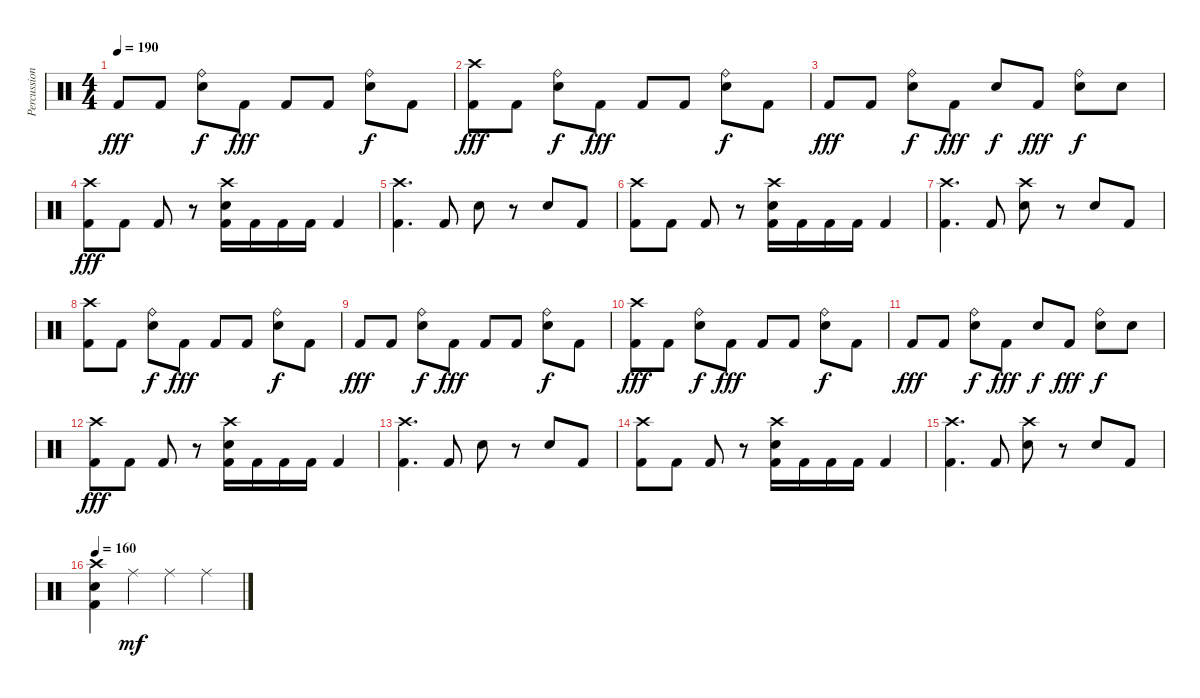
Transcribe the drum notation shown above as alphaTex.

\track ("Percussion" "Percussion") {instrument percussion}
\staff {score}
\articulation defaults
\ts (4 4)
\tempo 190
\clef neutral
\ks c "Kick (hit) 2".8{dy fff} "Kick (hit) 2".8
("Ride (bell)" "Electric Snare (hit)").8{dy f} "Kick (hit) 2".8{dy fff} "Kick (hit) 2".8 "Kick (hit) 2".8 ("Ride (bell)" "Electric Snare (hit)").8{dy f} "Kick (hit) 2".8 |
("Crash high (hit)" "Kick (hit) 2").8{dy fff} "Kick (hit) 2".8 ("Ride (bell)" "Electric Snare (hit)").8{dy f} "Kick (hit) 2".8{dy fff} "Kick (hit) 2".8 "Kick (hit) 2".8 ("Ride (bell)" "Electric Snare (hit)").8{dy f} "Kick (hit) 2".8 |
"Kick (hit) 2".8{dy fff} "Kick (hit) 2".8 ("Ride (bell)" "Electric Snare (hit)").8{dy f} "Kick (hit) 2".8{dy fff} "Electric Snare (hit)".8{dy f} "Kick (hit) 2".8{dy fff} ("Ride (bell)" "Electric Snare (hit)").8{dy f} "Electric Snare (hit)".8 |
("Crash high (hit)" "Kick (hit) 2").8{dy fff} "Kick (hit) 2".8 "Kick (hit) 2".8 r.8 ("Crash high (hit)" "Electric Snare (hit)" "Kick (hit) 2").16 "Kick (hit) 2".16 "Kick (hit) 2".16 "Kick (hit) 2".16 "Kick (hit) 2".4 |
("Crash high (hit)" "Kick (hit) 2").4{d} "Kick (hit) 2".8 "Electric Snare (hit)".8 r.8 "Electric Snare (hit)".8 "Kick (hit) 2".8 |
("Crash high (hit)" "Kick (hit) 2").8 "Kick (hit) 2".8 "Kick (hit) 2".8 r.8 ("Crash high (hit)" "Electric Snare (hit)" "Kick (hit) 2").16 "Kick (hit) 2".16 "Kick (hit) 2".16 "Kick (hit) 2".16 "Kick (hit) 2".4 |
("Crash high (hit)" "Kick (hit) 2").4{d} "Kick (hit) 2".8 ("Crash high (hit)" "Electric Snare (hit)").8 r.8 "Electric Snare (hit)".8 "Kick (hit) 2".8 |
("Crash high (hit)" "Kick (hit) 2").8 "Kick (hit) 2".8 ("Ride (bell)" "Electric Snare (hit)").8{dy f} "Kick (hit) 2".8{dy fff} "Kick (hit) 2".8 "Kick (hit) 2".8 ("Ride (bell)" "Electric Snare (hit)").8{dy f} "Kick (hit) 2".8 |
"Kick (hit) 2".8{dy fff} "Kick (hit) 2".8 ("Ride (bell)" "Electric Snare (hit)").8{dy f} "Kick (hit) 2".8{dy fff} "Kick (hit) 2".8 "Kick (hit) 2".8 ("Ride (bell)" "Electric Snare (hit)").8{dy f} "Kick (hit) 2".8 |
("Crash high (hit)" "Kick (hit) 2").8{dy fff} "Kick (hit) 2".8 ("Ride (bell)" "Electric Snare (hit)").8{dy f} "Kick (hit) 2".8{dy fff} "Kick (hit) 2".8 "Kick (hit) 2".8 ("Ride (bell)" "Electric Snare (hit)").8{dy f} "Kick (hit) 2".8 |
"Kick (hit) 2".8{dy fff} "Kick (hit) 2".8 ("Ride (bell)" "Electric Snare (hit)").8{dy f} "Kick (hit) 2".8{dy fff} "Electric Snare (hit)".8{dy f} "Kick (hit) 2".8{dy fff} ("Ride (bell)" "Electric Snare (hit)").8{dy f} "Electric Snare (hit)".8 |
("Crash high (hit)" "Kick (hit) 2").8{dy fff} "Kick (hit) 2".8 "Kick (hit) 2".8 r.8 ("Crash high (hit)" "Electric Snare (hit)" "Kick (hit) 2").16 "Kick (hit) 2".16 "Kick (hit) 2".16 "Kick (hit) 2".16 "Kick (hit) 2".4 |
("Crash high (hit)" "Kick (hit) 2").4{d} "Kick (hit) 2".8 "Electric Snare (hit)".8 r.8 "Electric Snare (hit)".8 "Kick (hit) 2".8 |
("Crash high (hit)" "Kick (hit) 2").8 "Kick (hit) 2".8 "Kick (hit) 2".8 r.8 ("Crash high (hit)" "Electric Snare (hit)" "Kick (hit) 2").16 "Kick (hit) 2".16 "Kick (hit) 2".16 "Kick (hit) 2".16 "Kick (hit) 2".4 |
("Crash high (hit)" "Kick (hit) 2").4{d} "Kick (hit) 2".8 ("Crash high (hit)" "Electric Snare (hit)").8 r.8 "Electric Snare (hit)".8 "Kick (hit) 2".8 |
\tempo 160
("Crash high (hit)" "Electric Snare (hit)" "Kick (hit) 2").4 "Ride (middle)".4{dy mf} "Ride (middle)".4 "Ride (middle)".4
